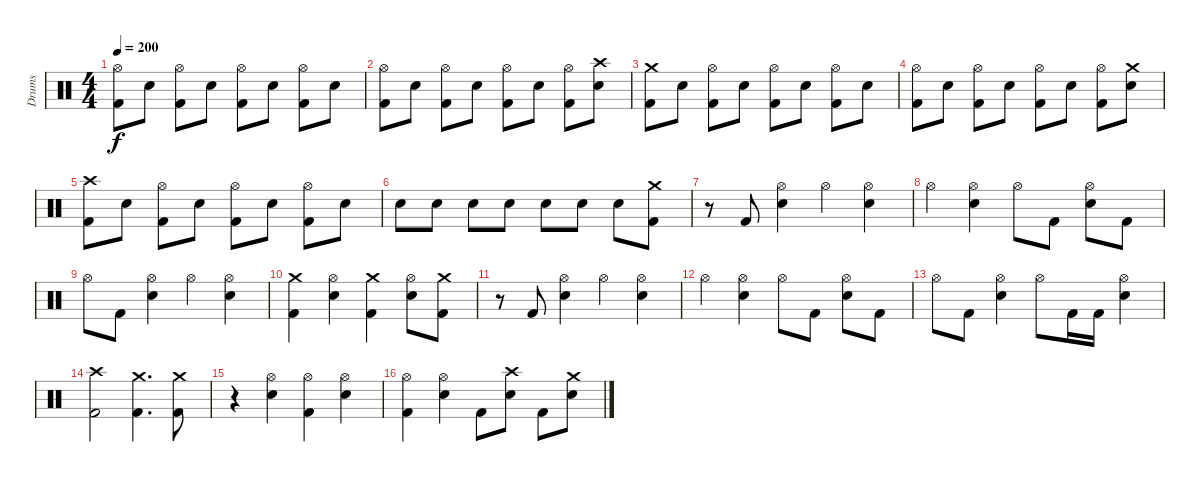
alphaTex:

\track ("Drums" "Drums") {instrument percussion}
\staff {score}
\articulation defaults
\ts (4 4)
\tempo 200
\clef neutral
\ks c
("Hi-Hat (open)" "Kick (hit) 2").8{dy f} "Electric Snare (hit)".8 ("Hi-Hat (open)" "Kick (hit) 2").8 "Electric Snare (hit)".8 ("Hi-Hat (open)" "Kick (hit) 2").8 "Electric Snare (hit)".8 ("Hi-Hat (open)" "Kick (hit) 2").8 "Electric Snare (hit)".8 |
("Hi-Hat (open)" "Kick (hit) 2").8 "Electric Snare (hit)".8 ("Hi-Hat (open)" "Kick (hit) 2").8 "Electric Snare (hit)".8 ("Hi-Hat (open)" "Kick (hit) 2").8 "Electric Snare (hit)".8 ("Hi-Hat (open)" "Kick (hit) 2").8 ("Crash high (hit)" "Electric Snare (hit)").8 |
("Crash medium (hit)" "Kick (hit) 2").8 "Electric Snare (hit)".8 ("Hi-Hat (open)" "Kick (hit) 2").8 "Electric Snare (hit)".8 ("Hi-Hat (open)" "Kick (hit) 2").8 "Electric Snare (hit)".8 ("Hi-Hat (open)" "Kick (hit) 2").8 "Electric Snare (hit)".8 |
("Hi-Hat (open)" "Kick (hit) 2").8 "Electric Snare (hit)".8 ("Hi-Hat (open)" "Kick (hit) 2").8 "Electric Snare (hit)".8 ("Hi-Hat (open)" "Kick (hit) 2").8 "Electric Snare (hit)".8 ("Hi-Hat (open)" "Kick (hit) 2").8 ("Crash medium (hit)" "Electric Snare (hit)").8 |
("Crash high (hit)" "Kick (hit) 2").8 "Electric Snare (hit)".8 ("Hi-Hat (open)" "Kick (hit) 2").8 "Electric Snare (hit)".8 ("Hi-Hat (open)" "Kick (hit) 2").8 "Electric Snare (hit)".8 ("Hi-Hat (open)" "Kick (hit) 2").8 "Electric Snare (hit)".8 |
"Electric Snare (hit)".8 "Electric Snare (hit)".8 "Electric Snare (hit)".8 "Electric Snare (hit)".8 "Electric Snare (hit)".8 "Electric Snare (hit)".8 "Electric Snare (hit)".8 ("Crash medium (hit)" "Kick (hit) 2").8 |
r.8 "Kick (hit) 2".8 ("Hi-Hat (open)" "Electric Snare (hit)").4 "Hi-Hat (open)".4 ("Hi-Hat (open)" "Electric Snare (hit)").4 |
"Hi-Hat (open)".4 ("Hi-Hat (open)" "Electric Snare (hit)").4 "Hi-Hat (open)".8 "Kick (hit) 2".8 ("Hi-Hat (open)" "Electric Snare (hit)").8 "Kick (hit) 2".8 |
"Hi-Hat (open)".8 "Kick (hit) 2".8 ("Hi-Hat (open)" "Electric Snare (hit)").4 "Hi-Hat (open)".4 ("Hi-Hat (open)" "Electric Snare (hit)").4 |
("Crash medium (hit)" "Kick (hit) 2").4 ("Hi-Hat (open)" "Electric Snare (hit)").4 ("Crash medium (hit)" "Kick (hit) 2").4 ("Hi-Hat (open)" "Electric Snare (hit)").8 ("Crash medium (hit)" "Kick (hit) 2").8 |
r.8 "Kick (hit) 2".8 ("Hi-Hat (open)" "Electric Snare (hit)").4 "Hi-Hat (open)".4 ("Hi-Hat (open)" "Electric Snare (hit)").4 |
"Hi-Hat (open)".4 ("Hi-Hat (open)" "Electric Snare (hit)").4 "Hi-Hat (open)".8 "Kick (hit) 2".8 ("Hi-Hat (open)" "Electric Snare (hit)").8 "Kick (hit) 2".8 |
"Hi-Hat (open)".8 "Kick (hit) 2".8 ("Hi-Hat (open)" "Electric Snare (hit)").4 "Hi-Hat (open)".8 "Kick (hit) 2".16 "Kick (hit) 2".16 ("Hi-Hat (open)" "Electric Snare (hit)").4 |
("Crash high (hit)" "Kick (hit) 2").2 ("Crash medium (hit)" "Kick (hit) 2").4{d} ("Crash medium (hit)" "Kick (hit) 2").8 |
r.4 ("Hi-Hat (open)" "Electric Snare (hit)").4 ("Hi-Hat (open)" "Kick (hit) 2").4 ("Hi-Hat (open)" "Electric Snare (hit)").4 |
("Hi-Hat (open)" "Kick (hit) 2").4 ("Hi-Hat (open)" "Electric Snare (hit)").4 "Kick (hit) 2".8 ("Crash high (hit)" "Electric Snare (hit)").8 "Kick (hit) 2".8 ("Crash medium (hit)" "Electric Snare (hit)").8
